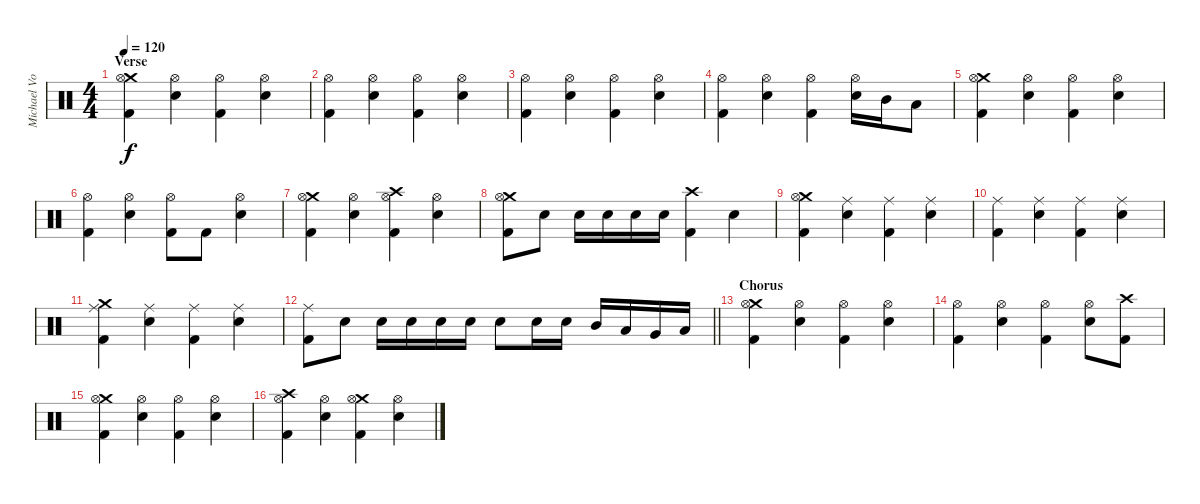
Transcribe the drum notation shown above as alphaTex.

\track ("Michael Von Knorring" "Michael Vo") {instrument percussion}
\staff {score}
\articulation defaults
\ts (4 4)
\section ("" "Verse")
\tempo 120
\clef neutral
\ks c
("Crash medium (hit)" "Hi-Hat (open)" "Kick (hit) 2").4{dy f} ("Hi-Hat (open)" "Snare (hit) 2").4 ("Hi-Hat (open)" "Kick (hit) 2").4 ("Hi-Hat (open)" "Snare (hit) 2").4 |
("Hi-Hat (open)" "Kick (hit) 2").4 ("Hi-Hat (open)" "Snare (hit) 2").4 ("Hi-Hat (open)" "Kick (hit) 2").4 ("Hi-Hat (open)" "Snare (hit) 2").4 |
("Hi-Hat (open)" "Kick (hit) 2").4 ("Hi-Hat (open)" "Snare (hit) 2").4 ("Hi-Hat (open)" "Kick (hit) 2").4 ("Hi-Hat (open)" "Snare (hit) 2").4 |
("Hi-Hat (open)" "Kick (hit) 2").4 ("Hi-Hat (open)" "Snare (hit) 2").4 ("Hi-Hat (open)" "Kick (hit) 2").4 ("Hi-Hat (open)" "Snare (hit) 2").16 "Mid Tom (hit)".16 "Low Tom (hit)".8 |
("Crash medium (hit)" "Hi-Hat (open)" "Kick (hit) 2").4 ("Hi-Hat (open)" "Snare (hit) 2").4 ("Hi-Hat (open)" "Kick (hit) 2").4 ("Hi-Hat (open)" "Snare (hit) 2").4 |
("Hi-Hat (open)" "Kick (hit) 2").4 ("Hi-Hat (open)" "Snare (hit) 2").4 ("Hi-Hat (open)" "Kick (hit) 2").8 "Kick (hit) 2".8 ("Hi-Hat (open)" "Snare (hit) 2").4 |
("Crash medium (hit)" "Hi-Hat (open)" "Kick (hit) 2").4 ("Hi-Hat (open)" "Snare (hit) 2").4 ("Crash high (hit)" "Hi-Hat (open)" "Kick (hit) 2").4 ("Hi-Hat (open)" "Snare (hit) 2").4 |
("Crash medium (hit)" "Hi-Hat (open)" "Kick (hit) 2").8 "Snare (hit) 2".8 "Snare (hit) 2".16 "Snare (hit) 2".16 "Snare (hit) 2".16 "Snare (hit) 2".16 ("Crash high (hit)" "Kick (hit) 2").4 "Snare (hit) 2".4 |
("Crash medium (hit)" "Hi-Hat (open)" "Kick (hit) 2").4 ("Ride (middle)" "Snare (hit) 2").4 ("Ride (middle)" "Kick (hit) 2").4 ("Ride (middle)" "Snare (hit) 2").4 |
("Ride (middle)" "Kick (hit) 2").4 ("Ride (middle)" "Snare (hit) 2").4 ("Ride (middle)" "Kick (hit) 2").4 ("Ride (middle)" "Snare (hit) 2").4 |
("Crash medium (hit)" "Ride (middle)" "Kick (hit) 2").4 ("Ride (middle)" "Snare (hit) 2").4 ("Ride (middle)" "Kick (hit) 2").4 ("Ride (middle)" "Snare (hit) 2").4 |
\barLineRight lightlight
("Ride (middle)" "Kick (hit) 2").8 "Snare (hit) 2".8 "Snare (hit) 2".16 "Snare (hit) 2".16 "Snare (hit) 2".16 "Snare (hit) 2".16 "Snare (hit) 2".8 "Snare (hit) 2".16 "Snare (hit) 2".16 "Mid Tom (hit)".16 "Low Tom (hit)".16 "Very Low Tom (hit)".16 "Low Floor Tom (hit)".16 |
\section ("" "Chorus")
("Crash medium (hit)" "Hi-Hat (open)" "Kick (hit) 2").4 ("Hi-Hat (open)" "Snare (hit) 2").4 ("Hi-Hat (open)" "Kick (hit) 2").4 ("Hi-Hat (open)" "Snare (hit) 2").4 |
("Hi-Hat (open)" "Kick (hit) 2").4 ("Hi-Hat (open)" "Snare (hit) 2").4 ("Hi-Hat (open)" "Kick (hit) 2").4 ("Hi-Hat (open)" "Snare (hit) 2").8 ("Crash high (hit)" "Kick (hit) 2").8 |
("Crash medium (hit)" "Hi-Hat (open)" "Kick (hit) 2").4 ("Hi-Hat (open)" "Snare (hit) 2").4 ("Hi-Hat (open)" "Kick (hit) 2").4 ("Hi-Hat (open)" "Snare (hit) 2").4 |
("Crash high (hit)" "Hi-Hat (open)" "Kick (hit) 2").4 ("Hi-Hat (open)" "Snare (hit) 2").4 ("Crash medium (hit)" "Hi-Hat (open)" "Kick (hit) 2").4 ("Hi-Hat (open)" "Snare (hit) 2").4
